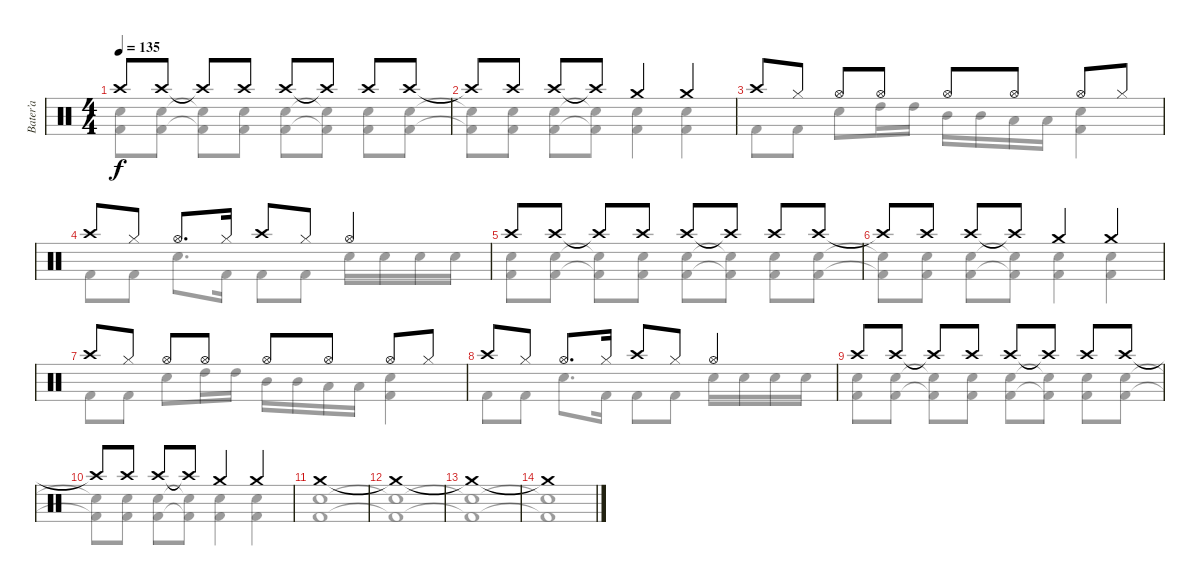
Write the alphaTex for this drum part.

\track ("Bater’a" "Bater’a") {instrument percussion}
\staff {score}
\articulation defaults
\voice
\ts (4 4)
\tempo 135
\clef neutral
\ks c "Crash high (hit)".8{dy f} "Crash high (hit)".8 "Crash high (hit)"{t}.8 "Crash high (hit)".8 "Crash high (hit)".8 "Crash high (hit)"{t}.8 "Crash high (hit)".8 "Crash high (hit)".8
|
"Crash high (hit)"{t}.8 "Crash high (hit)".8 "Crash high (hit)".8 "Crash high (hit)"{t}.8 "Crash medium (hit)".4 "Crash medium (hit)".4 |
"Crash high (hit)".8 "Hi-Hat (closed)".8 "Hi-Hat (open)".8 "Hi-Hat (open)".8 "Hi-Hat (open)".8 "Hi-Hat (open)".8 "Hi-Hat (open)".8 "Hi-Hat (closed)".8 |
"Crash high (hit)".8 "Hi-Hat (closed)".8 "Hi-Hat (open)".8{d} "Hi-Hat (closed)".16 "Crash high (hit)".8 "Hi-Hat (closed)".8 "Hi-Hat (open)".4 |
"Crash high (hit)".8 "Crash high (hit)".8 "Crash high (hit)"{t}.8 "Crash high (hit)".8 "Crash high (hit)".8 "Crash high (hit)"{t}.8 "Crash high (hit)".8 "Crash high (hit)".8 |
"Crash high (hit)"{t}.8 "Crash high (hit)".8 "Crash high (hit)".8 "Crash high (hit)"{t}.8 "Crash medium (hit)".4 "Crash medium (hit)".4 |
"Crash high (hit)".8 "Hi-Hat (closed)".8 "Hi-Hat (open)".8 "Hi-Hat (open)".8 "Hi-Hat (open)".8 "Hi-Hat (open)".8 "Hi-Hat (open)".8 "Hi-Hat (closed)".8 |
"Crash high (hit)".8 "Hi-Hat (closed)".8 "Hi-Hat (open)".8{d} "Hi-Hat (closed)".16 "Crash high (hit)".8 "Hi-Hat (closed)".8 "Hi-Hat (open)".4 |
"Crash high (hit)".8 "Crash high (hit)".8 "Crash high (hit)"{t}.8 "Crash high (hit)".8 "Crash high (hit)".8 "Crash high (hit)"{t}.8 "Crash high (hit)".8 "Crash high (hit)".8 |
"Crash high (hit)"{t}.8 "Crash high (hit)".8 "Crash high (hit)".8 "Crash high (hit)"{t}.8 "Crash medium (hit)".4 "Crash medium (hit)".4 |
"Crash medium (hit)".1 |
"Crash medium (hit)"{t}.1 |
"Crash medium (hit)"{t}.1 |
"Crash medium (hit)"{t}.1
\voice
\clef neutral
\ottava regular
\simile none
\ks c
("Snare (hit) 2" "Kick (hit) 2").8{dy f} ("Snare (hit) 2" "Kick (hit) 2").8 ("Snare (hit) 2"{t} "Kick (hit) 2"{t}).8 ("Snare (hit) 2" "Kick (hit) 2").8 ("Snare (hit) 2" "Kick (hit) 2").8 ("Snare (hit) 2"{t} "Kick (hit) 2"{t}).8 ("Snare (hit) 2" "Kick (hit) 2").8 ("Snare (hit) 2" "Kick (hit) 2").8 |
("Snare (hit) 2"{t} "Kick (hit) 2"{t}).8 ("Snare (hit) 2" "Kick (hit) 2").8 ("Snare (hit) 2" "Kick (hit) 2").8 ("Snare (hit) 2"{t} "Kick (hit) 2"{t}).8 ("Snare (hit) 2" "Kick (hit) 2").4 ("Snare (hit) 2" "Kick (hit) 2").4 |
"Kick (hit) 2".8 "Kick (hit) 2".8 "Snare (hit) 2".8 "High Tom (hit)".16 "High Tom (hit)".16 "Mid Tom (hit)".16 "Mid Tom (hit)".16 "Low Tom (hit)".16 "Low Tom (hit)".16 ("Snare (hit) 2" "Kick (hit) 2").4 |
"Kick (hit) 2".8 "Kick (hit) 2".8 "Snare (hit) 2".8{d} "Kick (hit) 2".16 "Kick (hit) 2".8 "Kick (hit) 2".8 "Snare (hit) 2".16 "Snare (hit) 2".16 "Snare (hit) 2".16 "Snare (hit) 2".16 |
("Snare (hit) 2" "Kick (hit) 2").8 ("Snare (hit) 2" "Kick (hit) 2").8 ("Snare (hit) 2"{t} "Kick (hit) 2"{t}).8 ("Snare (hit) 2" "Kick (hit) 2").8 ("Snare (hit) 2" "Kick (hit) 2").8 ("Snare (hit) 2"{t} "Kick (hit) 2"{t}).8 ("Snare (hit) 2" "Kick (hit) 2").8 ("Snare (hit) 2" "Kick (hit) 2").8 |
("Snare (hit) 2"{t} "Kick (hit) 2"{t}).8 ("Snare (hit) 2" "Kick (hit) 2").8 ("Snare (hit) 2" "Kick (hit) 2").8 ("Snare (hit) 2"{t} "Kick (hit) 2"{t}).8 ("Snare (hit) 2" "Kick (hit) 2").4 ("Snare (hit) 2" "Kick (hit) 2").4 |
"Kick (hit) 2".8 "Kick (hit) 2".8 "Snare (hit) 2".8 "High Tom (hit)".16 "High Tom (hit)".16 "Mid Tom (hit)".16 "Mid Tom (hit)".16 "Low Tom (hit)".16 "Low Tom (hit)".16 ("Snare (hit) 2" "Kick (hit) 2").4 |
"Kick (hit) 2".8 "Kick (hit) 2".8 "Snare (hit) 2".8{d} "Kick (hit) 2".16 "Kick (hit) 2".8 "Kick (hit) 2".8 "Snare (hit) 2".16 "Snare (hit) 2".16 "Snare (hit) 2".16 "Snare (hit) 2".16 |
("Snare (hit) 2" "Kick (hit) 2").8 ("Snare (hit) 2" "Kick (hit) 2").8 ("Snare (hit) 2"{t} "Kick (hit) 2"{t}).8 ("Snare (hit) 2" "Kick (hit) 2").8 ("Snare (hit) 2" "Kick (hit) 2").8 ("Snare (hit) 2"{t} "Kick (hit) 2"{t}).8 ("Snare (hit) 2" "Kick (hit) 2").8 ("Snare (hit) 2" "Kick (hit) 2").8 |
("Snare (hit) 2"{t} "Kick (hit) 2"{t}).8 ("Snare (hit) 2" "Kick (hit) 2").8 ("Snare (hit) 2" "Kick (hit) 2").8 ("Snare (hit) 2"{t} "Kick (hit) 2"{t}).8 ("Snare (hit) 2" "Kick (hit) 2").4 ("Snare (hit) 2" "Kick (hit) 2").4 |
("Snare (hit) 2" "Kick (hit) 2").1 |
("Snare (hit) 2"{t} "Kick (hit) 2"{t}).1 |
("Snare (hit) 2"{t} "Kick (hit) 2"{t}).1 |
("Snare (hit) 2"{t} "Kick (hit) 2"{t}).1
